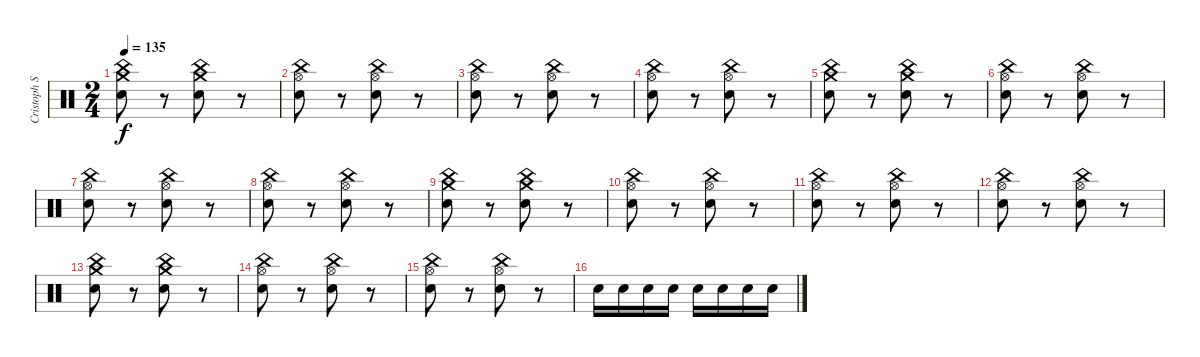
\track ("Cristoph Schneider / Drums" "Cristoph S") {instrument percussion}
\staff {score}
\articulation defaults
\ts (2 4)
\tempo 135
\clef neutral
\ks c
("Crash medium (hit)" "Electric Snare (hit)" "China (hit)").8{dy f} r.8 ("Crash medium (hit)" "Electric Snare (hit)" "China (hit)").8 r.8 |
("Electric Snare (hit)" "China (hit)" "Hi-Hat (open)").8 r.8 ("China (hit)" "Electric Snare (hit)" "Hi-Hat (open)").8 r.8 |
("China (hit)" "Electric Snare (hit)" "Hi-Hat (open)").8 r.8 ("China (hit)" "Electric Snare (hit)" "Hi-Hat (open)").8 r.8 |
("China (hit)" "Electric Snare (hit)" "Hi-Hat (open)").8 r.8 ("China (hit)" "Electric Snare (hit)" "Hi-Hat (open)").8 r.8 |
("Crash medium (hit)" "Electric Snare (hit)" "China (hit)").8 r.8 ("Crash medium (hit)" "Electric Snare (hit)" "China (hit)").8 r.8 |
("Electric Snare (hit)" "China (hit)" "Hi-Hat (open)").8 r.8 ("China (hit)" "Electric Snare (hit)" "Hi-Hat (open)").8 r.8 |
("China (hit)" "Electric Snare (hit)" "Hi-Hat (open)").8 r.8 ("China (hit)" "Electric Snare (hit)" "Hi-Hat (open)").8 r.8 |
("China (hit)" "Electric Snare (hit)" "Hi-Hat (open)").8 r.8 ("China (hit)" "Electric Snare (hit)" "Hi-Hat (open)").8 r.8 |
("Crash medium (hit)" "Electric Snare (hit)" "China (hit)").8 r.8 ("Crash medium (hit)" "Electric Snare (hit)" "China (hit)").8 r.8 |
("Electric Snare (hit)" "China (hit)" "Hi-Hat (open)").8 r.8 ("China (hit)" "Electric Snare (hit)" "Hi-Hat (open)").8 r.8 |
("China (hit)" "Electric Snare (hit)" "Hi-Hat (open)").8 r.8 ("China (hit)" "Electric Snare (hit)" "Hi-Hat (open)").8 r.8 |
("China (hit)" "Electric Snare (hit)" "Hi-Hat (open)").8 r.8 ("China (hit)" "Electric Snare (hit)" "Hi-Hat (open)").8 r.8 |
("Crash medium (hit)" "Electric Snare (hit)" "China (hit)").8 r.8 ("Crash medium (hit)" "Electric Snare (hit)" "China (hit)").8 r.8 |
("Electric Snare (hit)" "China (hit)" "Hi-Hat (open)").8 r.8 ("China (hit)" "Electric Snare (hit)" "Hi-Hat (open)").8 r.8 |
("China (hit)" "Electric Snare (hit)" "Hi-Hat (open)").8 r.8 ("China (hit)" "Electric Snare (hit)" "Hi-Hat (open)").8 r.8 |
"Electric Snare (hit)".16 "Electric Snare (hit)".16 "Electric Snare (hit)".16 "Electric Snare (hit)".16 "Electric Snare (hit)".16 "Electric Snare (hit)".16 "Electric Snare (hit)".16 "Electric Snare (hit)".16
